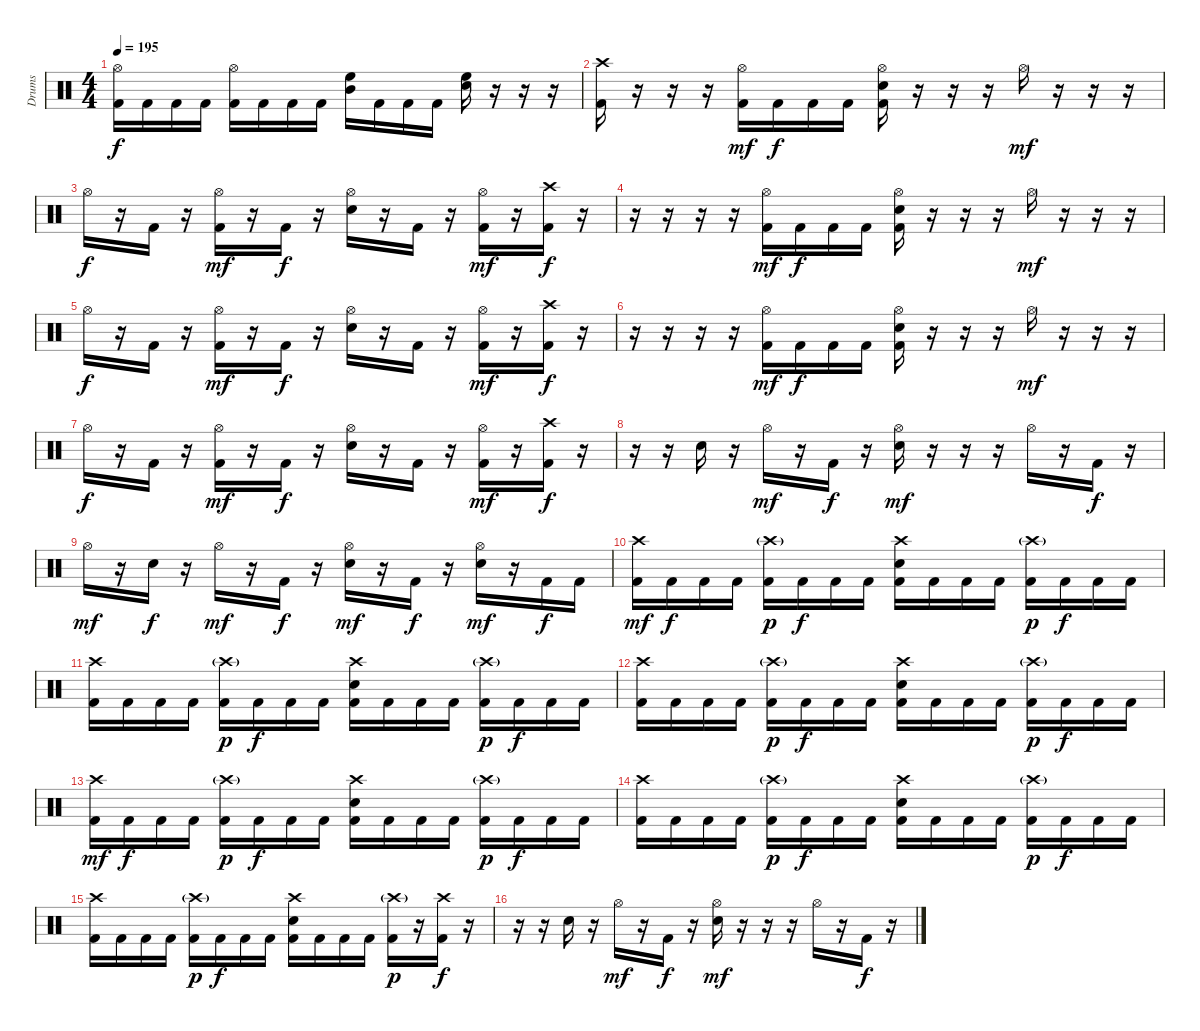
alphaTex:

\track ("Drums" "Drums") {instrument percussion}
\staff {score}
\articulation defaults
\ts (4 4)
\tempo 195
\clef neutral
\ks c
("Hi-Hat (open)" "Kick (hit) 2").16{dy f} "Kick (hit) 2".16 "Kick (hit) 2".16 "Kick (hit) 2".16 ("Hi-Hat (open)" "Kick (hit) 2").16 "Kick (hit) 2".16 "Kick (hit) 2".16 "Kick (hit) 2".16 ("Mid Tom (hit)" "High Floor Tom (hit)").16 "Kick (hit) 2".16 "Kick (hit) 2".16 "Kick (hit) 2".16 ("High Floor Tom (hit)" "Snare (hit) 2").16 r.16 r.16 r.16 |
("Crash high (hit)" "Kick (hit) 2").16 r.16 r.16 r.16 ("Hi-Hat (open)" "Kick (hit) 2").16{dy mf} "Kick (hit) 2".16{dy f} "Kick (hit) 2".16 "Kick (hit) 2".16 ("Hi-Hat (open)" "Snare (hit) 2" "Kick (hit) 2").16 r.16 r.16 r.16 "Hi-Hat (open)".16{dy mf} r.16 r.16 r.16 |
"Hi-Hat (open)".16{dy f} r.16 "Kick (hit) 2".16 r.16 ("Hi-Hat (open)" "Kick (hit) 2").16{dy mf} r.16 "Kick (hit) 2".16{dy f} r.16 ("Hi-Hat (open)" "Snare (hit) 2").16 r.16 "Kick (hit) 2".16 r.16 ("Hi-Hat (open)" "Kick (hit) 2").16{dy mf} r.16 ("Crash high (hit)" "Kick (hit) 2").16{dy f} r.16 |
r.16 r.16 r.16 r.16 ("Hi-Hat (open)" "Kick (hit) 2").16{dy mf} "Kick (hit) 2".16{dy f} "Kick (hit) 2".16 "Kick (hit) 2".16 ("Hi-Hat (open)" "Snare (hit) 2" "Kick (hit) 2").16 r.16 r.16 r.16 "Hi-Hat (open)".16{dy mf} r.16 r.16 r.16 |
"Hi-Hat (open)".16{dy f} r.16 "Kick (hit) 2".16 r.16 ("Hi-Hat (open)" "Kick (hit) 2").16{dy mf} r.16 "Kick (hit) 2".16{dy f} r.16 ("Hi-Hat (open)" "Snare (hit) 2").16 r.16 "Kick (hit) 2".16 r.16 ("Hi-Hat (open)" "Kick (hit) 2").16{dy mf} r.16 ("Crash high (hit)" "Kick (hit) 2").16{dy f} r.16 |
r.16 r.16 r.16 r.16 ("Hi-Hat (open)" "Kick (hit) 2").16{dy mf} "Kick (hit) 2".16{dy f} "Kick (hit) 2".16 "Kick (hit) 2".16 ("Hi-Hat (open)" "Snare (hit) 2" "Kick (hit) 2").16 r.16 r.16 r.16 "Hi-Hat (open)".16{dy mf} r.16 r.16 r.16 |
"Hi-Hat (open)".16{dy f} r.16 "Kick (hit) 2".16 r.16 ("Hi-Hat (open)" "Kick (hit) 2").16{dy mf} r.16 "Kick (hit) 2".16{dy f} r.16 ("Hi-Hat (open)" "Snare (hit) 2").16 r.16 "Kick (hit) 2".16 r.16 ("Hi-Hat (open)" "Kick (hit) 2").16{dy mf} r.16 ("Crash high (hit)" "Kick (hit) 2").16{dy f} r.16 |
r.16 r.16 "Snare (hit) 2".16 r.16 "Hi-Hat (open)".16{dy mf} r.16 "Kick (hit) 2".16{dy f} r.16 ("Hi-Hat (open)" "Snare (hit) 2").16{dy mf} r.16 r.16 r.16 "Hi-Hat (open)".16 r.16 "Kick (hit) 2".16{dy f} r.16 |
"Hi-Hat (open)".16{dy mf} r.16 "Snare (hit) 2".16{dy f} r.16 "Hi-Hat (open)".16{dy mf} r.16 "Kick (hit) 2".16{dy f} r.16 ("Hi-Hat (open)" "Snare (hit) 2").16{dy mf} r.16 "Kick (hit) 2".16{dy f} r.16 ("Hi-Hat (open)" "Snare (hit) 2").16{dy mf} r.16 "Kick (hit) 2".16{dy f} "Kick (hit) 2".16 |
("Crash high (hit)" "Kick (hit) 2").16{dy mf} "Kick (hit) 2".16{dy f} "Kick (hit) 2".16 "Kick (hit) 2".16 ("Crash high (hit)"{g} "Kick (hit) 2").16{dy p} "Kick (hit) 2".16{dy f} "Kick (hit) 2".16 "Kick (hit) 2".16 ("Crash high (hit)" "Snare (hit) 2" "Kick (hit) 2").16 "Kick (hit) 2".16 "Kick (hit) 2".16 "Kick (hit) 2".16 ("Crash high (hit)"{g} "Kick (hit) 2").16{dy p} "Kick (hit) 2".16{dy f} "Kick (hit) 2".16 "Kick (hit) 2".16 |
("Crash high (hit)" "Kick (hit) 2").16 "Kick (hit) 2".16 "Kick (hit) 2".16 "Kick (hit) 2".16 ("Crash high (hit)"{g} "Kick (hit) 2").16{dy p} "Kick (hit) 2".16{dy f} "Kick (hit) 2".16 "Kick (hit) 2".16 ("Crash high (hit)" "Snare (hit) 2" "Kick (hit) 2").16 "Kick (hit) 2".16 "Kick (hit) 2".16 "Kick (hit) 2".16 ("Crash high (hit)"{g} "Kick (hit) 2").16{dy p} "Kick (hit) 2".16{dy f} "Kick (hit) 2".16 "Kick (hit) 2".16 |
("Crash high (hit)" "Kick (hit) 2").16 "Kick (hit) 2".16 "Kick (hit) 2".16 "Kick (hit) 2".16 ("Crash high (hit)"{g} "Kick (hit) 2").16{dy p} "Kick (hit) 2".16{dy f} "Kick (hit) 2".16 "Kick (hit) 2".16 ("Crash high (hit)" "Snare (hit) 2" "Kick (hit) 2").16 "Kick (hit) 2".16 "Kick (hit) 2".16 "Kick (hit) 2".16 ("Crash high (hit)"{g} "Kick (hit) 2").16{dy p} "Kick (hit) 2".16{dy f} "Kick (hit) 2".16 "Kick (hit) 2".16 |
("Crash high (hit)" "Kick (hit) 2").16{dy mf} "Kick (hit) 2".16{dy f} "Kick (hit) 2".16 "Kick (hit) 2".16 ("Crash high (hit)"{g} "Kick (hit) 2").16{dy p} "Kick (hit) 2".16{dy f} "Kick (hit) 2".16 "Kick (hit) 2".16 ("Crash high (hit)" "Snare (hit) 2" "Kick (hit) 2").16 "Kick (hit) 2".16 "Kick (hit) 2".16 "Kick (hit) 2".16 ("Crash high (hit)"{g} "Kick (hit) 2").16{dy p} "Kick (hit) 2".16{dy f} "Kick (hit) 2".16 "Kick (hit) 2".16 |
("Crash high (hit)" "Kick (hit) 2").16 "Kick (hit) 2".16 "Kick (hit) 2".16 "Kick (hit) 2".16 ("Crash high (hit)"{g} "Kick (hit) 2").16{dy p} "Kick (hit) 2".16{dy f} "Kick (hit) 2".16 "Kick (hit) 2".16 ("Crash high (hit)" "Snare (hit) 2" "Kick (hit) 2").16 "Kick (hit) 2".16 "Kick (hit) 2".16 "Kick (hit) 2".16 ("Crash high (hit)"{g} "Kick (hit) 2").16{dy p} "Kick (hit) 2".16{dy f} "Kick (hit) 2".16 "Kick (hit) 2".16 |
("Crash high (hit)" "Kick (hit) 2").16 "Kick (hit) 2".16 "Kick (hit) 2".16 "Kick (hit) 2".16 ("Crash high (hit)"{g} "Kick (hit) 2").16{dy p} "Kick (hit) 2".16{dy f} "Kick (hit) 2".16 "Kick (hit) 2".16 ("Crash high (hit)" "Snare (hit) 2" "Kick (hit) 2").16 "Kick (hit) 2".16 "Kick (hit) 2".16 "Kick (hit) 2".16 ("Crash high (hit)"{g} "Kick (hit) 2").16{dy p} r.16 ("Crash high (hit)" "Kick (hit) 2").16{dy f} r.16 |
r.16 r.16 "Snare (hit) 2".16 r.16 "Hi-Hat (open)".16{dy mf} r.16 "Kick (hit) 2".16{dy f} r.16 ("Hi-Hat (open)" "Snare (hit) 2").16{dy mf} r.16 r.16 r.16 "Hi-Hat (open)".16 r.16 "Kick (hit) 2".16{dy f} r.16
